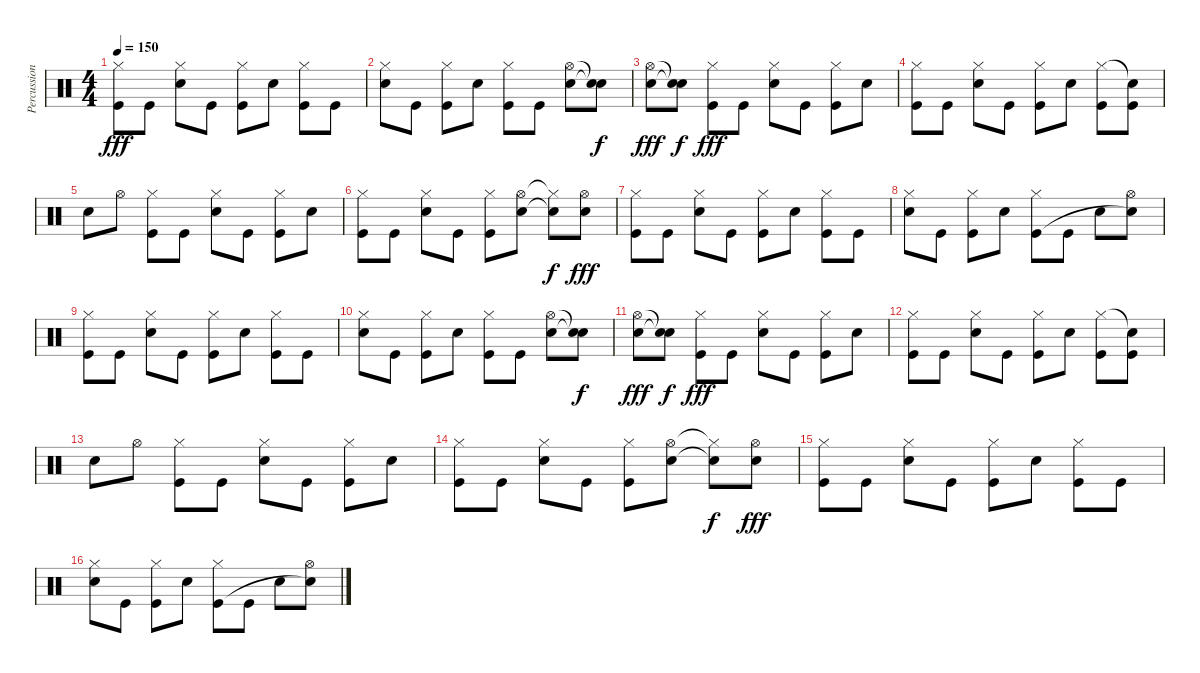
\track ("Percussions" "Percussion") {instrument percussion}
\staff {score}
\articulation defaults
\ts (4 4)
\tempo 150
\clef neutral
\ks c
("Hi-Hat (closed)" "Kick (hit)").8{dy fff} "Kick (hit)".8 ("Hi-Hat (closed)" "Electric Snare (hit)").8 "Kick (hit)".8 ("Hi-Hat (closed)" "Kick (hit)").8 "Electric Snare (hit)".8 ("Hi-Hat (closed)" "Kick (hit)").8 "Kick (hit)".8 |
("Hi-Hat (closed)" "Electric Snare (hit)").8 "Kick (hit)".8 ("Hi-Hat (closed)" "Kick (hit)").8 "Electric Snare (hit)".8 ("Hi-Hat (closed)" "Kick (hit)").8 "Kick (hit)".8 ("Hi-Hat (open)" "Electric Snare (hit)").8 ("Snare (hit)"{t} "Snare (hit)"{t}).8{dy f} |
("Hi-Hat (open)" "Electric Snare (hit)").8{dy fff} ("Snare (hit)"{t} "Snare (hit)"{t}).8{dy f} ("Hi-Hat (closed)" "Kick (hit)").8{dy fff} "Kick (hit)".8 ("Hi-Hat (closed)" "Electric Snare (hit)").8 "Kick (hit)".8 ("Hi-Hat (closed)" "Kick (hit)").8 "Electric Snare (hit)".8 |
("Hi-Hat (closed)" "Kick (hit)").8 "Kick (hit)".8 ("Hi-Hat (closed)" "Electric Snare (hit)").8 "Kick (hit)".8 ("Hi-Hat (closed)" "Kick (hit)").8 "Electric Snare (hit)".8 ("Hi-Hat (closed)" "Kick (hit)").8 ("Snare (hit)"{t} "Kick (hit)").8 |
"Electric Snare (hit)".8 "Hi-Hat (open)".8 ("Hi-Hat (closed)" "Kick (hit)").8 "Kick (hit)".8 ("Hi-Hat (closed)" "Electric Snare (hit)").8 "Kick (hit)".8 ("Hi-Hat (closed)" "Kick (hit)").8 "Electric Snare (hit)".8 |
("Hi-Hat (closed)" "Kick (hit)").8 "Kick (hit)".8 ("Hi-Hat (closed)" "Electric Snare (hit)").8 "Kick (hit)".8 ("Hi-Hat (closed)" "Kick (hit)").8 ("Hi-Hat (open)" "Electric Snare (hit)").8 ("Hi-Hat (closed)"{t} "Snare (hit)"{t}).8{dy f} ("Hi-Hat (open)" "Electric Snare (hit)").8{dy fff} |
("Hi-Hat (closed)" "Kick (hit)").8 "Kick (hit)".8 ("Hi-Hat (closed)" "Electric Snare (hit)").8 "Kick (hit)".8 ("Hi-Hat (closed)" "Kick (hit)").8 "Electric Snare (hit)".8 ("Hi-Hat (closed)" "Kick (hit)").8 "Kick (hit)".8 |
("Hi-Hat (closed)" "Electric Snare (hit)").8 "Kick (hit)".8 ("Hi-Hat (closed)" "Kick (hit)").8 "Electric Snare (hit)".8 ("Hi-Hat (closed)" "Kick (hit)").8 "Kick (hit)".8 "Electric Snare (hit)".8 ("Hi-Hat (open)" "Snare (hit)"{t}).8 |
("Hi-Hat (closed)" "Kick (hit)").8 "Kick (hit)".8 ("Hi-Hat (closed)" "Electric Snare (hit)").8 "Kick (hit)".8 ("Hi-Hat (closed)" "Kick (hit)").8 "Electric Snare (hit)".8 ("Hi-Hat (closed)" "Kick (hit)").8 "Kick (hit)".8 |
("Hi-Hat (closed)" "Electric Snare (hit)").8 "Kick (hit)".8 ("Hi-Hat (closed)" "Kick (hit)").8 "Electric Snare (hit)".8 ("Hi-Hat (closed)" "Kick (hit)").8 "Kick (hit)".8 ("Hi-Hat (open)" "Electric Snare (hit)").8 ("Snare (hit)"{t} "Snare (hit)"{t}).8{dy f} |
("Hi-Hat (open)" "Electric Snare (hit)").8{dy fff} ("Snare (hit)"{t} "Snare (hit)"{t}).8{dy f} ("Hi-Hat (closed)" "Kick (hit)").8{dy fff} "Kick (hit)".8 ("Hi-Hat (closed)" "Electric Snare (hit)").8 "Kick (hit)".8 ("Hi-Hat (closed)" "Kick (hit)").8 "Electric Snare (hit)".8 |
("Hi-Hat (closed)" "Kick (hit)").8 "Kick (hit)".8 ("Hi-Hat (closed)" "Electric Snare (hit)").8 "Kick (hit)".8 ("Hi-Hat (closed)" "Kick (hit)").8 "Electric Snare (hit)".8 ("Hi-Hat (closed)" "Kick (hit)").8 ("Snare (hit)"{t} "Kick (hit)").8 |
"Electric Snare (hit)".8 "Hi-Hat (open)".8 ("Hi-Hat (closed)" "Kick (hit)").8 "Kick (hit)".8 ("Hi-Hat (closed)" "Electric Snare (hit)").8 "Kick (hit)".8 ("Hi-Hat (closed)" "Kick (hit)").8 "Electric Snare (hit)".8 |
("Hi-Hat (closed)" "Kick (hit)").8 "Kick (hit)".8 ("Hi-Hat (closed)" "Electric Snare (hit)").8 "Kick (hit)".8 ("Hi-Hat (closed)" "Kick (hit)").8 ("Hi-Hat (open)" "Electric Snare (hit)").8 ("Hi-Hat (closed)"{t} "Snare (hit)"{t}).8{dy f} ("Hi-Hat (open)" "Electric Snare (hit)").8{dy fff} |
("Hi-Hat (closed)" "Kick (hit)").8 "Kick (hit)".8 ("Hi-Hat (closed)" "Electric Snare (hit)").8 "Kick (hit)".8 ("Hi-Hat (closed)" "Kick (hit)").8 "Electric Snare (hit)".8 ("Hi-Hat (closed)" "Kick (hit)").8 "Kick (hit)".8 |
("Hi-Hat (closed)" "Electric Snare (hit)").8 "Kick (hit)".8 ("Hi-Hat (closed)" "Kick (hit)").8 "Electric Snare (hit)".8 ("Hi-Hat (closed)" "Kick (hit)").8 "Kick (hit)".8 "Electric Snare (hit)".8 ("Hi-Hat (open)" "Snare (hit)"{t}).8
